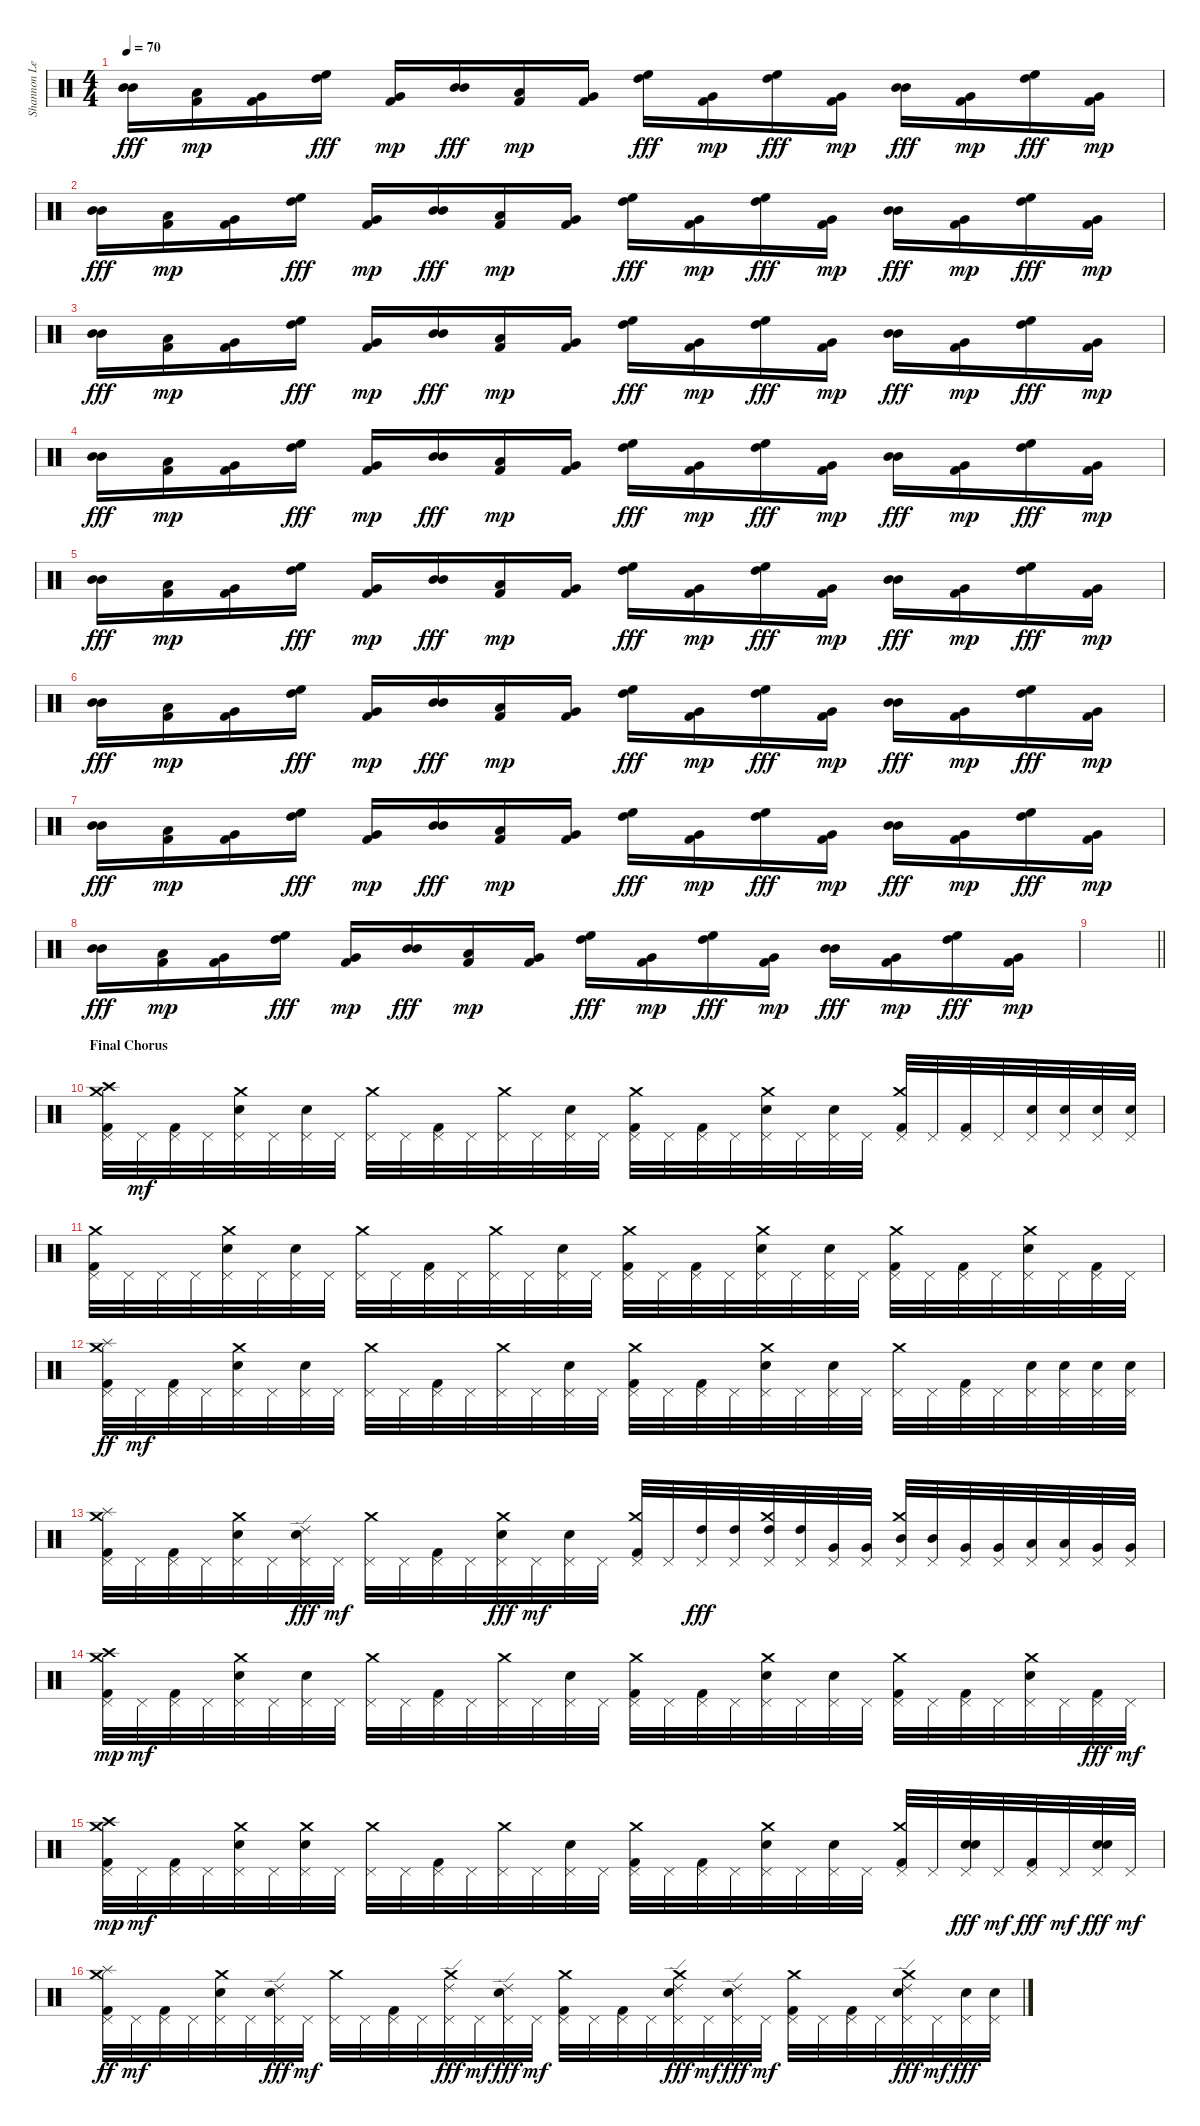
\track ("Shannon Leto - Drums" "Shannon Le") {instrument percussion}
\staff {score}
\articulation defaults
\ts (4 4)
\tempo 70
\clef neutral
\ks c
("Mid Tom (hit)" "Mid Tom (hit)").16{bd 30 dy fff} ("Low Tom (hit)" "Kick (hit) 2").16{dy mp} ("Very Low Tom (hit)" "Kick (hit) 2").16 ("High Floor Tom (hit)" "High Tom (hit)").16{bd 120 dy fff} ("Very Low Tom (hit)" "Kick (hit) 2").16{dy mp} ("Mid Tom (hit)" "Mid Tom (hit)").16{bd 30 dy fff} ("Low Tom (hit)" "Kick (hit) 2").16{dy mp} ("Very Low Tom (hit)" "Kick (hit) 2").16 ("High Floor Tom (hit)" "High Tom (hit)").16{bd 30 dy fff} ("Very Low Tom (hit)" "Kick (hit) 2").16{dy mp} ("High Floor Tom (hit)" "High Tom (hit)").16{bd 60 dy fff} ("Very Low Tom (hit)" "Kick (hit) 2").16{dy mp} ("Mid Tom (hit)" "Mid Tom (hit)").16{bd 30 dy fff} ("Very Low Tom (hit)" "Kick (hit) 2").16{dy mp} ("High Floor Tom (hit)" "High Tom (hit)").16{bd 30 dy fff} ("Very Low Tom (hit)" "Kick (hit) 2").16{dy mp} |
("Mid Tom (hit)" "Mid Tom (hit)").16{bd 30 dy fff} ("Low Tom (hit)" "Kick (hit) 2").16{dy mp} ("Very Low Tom (hit)" "Kick (hit) 2").16 ("High Floor Tom (hit)" "High Tom (hit)").16{bd 120 dy fff} ("Very Low Tom (hit)" "Kick (hit) 2").16{dy mp} ("Mid Tom (hit)" "Mid Tom (hit)").16{bd 30 dy fff} ("Low Tom (hit)" "Kick (hit) 2").16{dy mp} ("Very Low Tom (hit)" "Kick (hit) 2").16 ("High Floor Tom (hit)" "High Tom (hit)").16{bd 30 dy fff} ("Very Low Tom (hit)" "Kick (hit) 2").16{dy mp} ("High Floor Tom (hit)" "High Tom (hit)").16{bd 60 dy fff} ("Very Low Tom (hit)" "Kick (hit) 2").16{dy mp} ("Mid Tom (hit)" "Mid Tom (hit)").16{bd 30 dy fff} ("Very Low Tom (hit)" "Kick (hit) 2").16{dy mp} ("High Floor Tom (hit)" "High Tom (hit)").16{bd 30 dy fff} ("Very Low Tom (hit)" "Kick (hit) 2").16{dy mp} |
("Mid Tom (hit)" "Mid Tom (hit)").16{bd 30 dy fff} ("Low Tom (hit)" "Kick (hit) 2").16{dy mp} ("Very Low Tom (hit)" "Kick (hit) 2").16 ("High Floor Tom (hit)" "High Tom (hit)").16{bd 120 dy fff} ("Very Low Tom (hit)" "Kick (hit) 2").16{dy mp} ("Mid Tom (hit)" "Mid Tom (hit)").16{bd 30 dy fff} ("Low Tom (hit)" "Kick (hit) 2").16{dy mp} ("Very Low Tom (hit)" "Kick (hit) 2").16 ("High Floor Tom (hit)" "High Tom (hit)").16{bd 30 dy fff} ("Very Low Tom (hit)" "Kick (hit) 2").16{dy mp} ("High Floor Tom (hit)" "High Tom (hit)").16{bd 60 dy fff} ("Very Low Tom (hit)" "Kick (hit) 2").16{dy mp} ("Mid Tom (hit)" "Mid Tom (hit)").16{bd 30 dy fff} ("Very Low Tom (hit)" "Kick (hit) 2").16{dy mp} ("High Floor Tom (hit)" "High Tom (hit)").16{bd 30 dy fff} ("Very Low Tom (hit)" "Kick (hit) 2").16{dy mp} |
("Mid Tom (hit)" "Mid Tom (hit)").16{bd 30 dy fff} ("Low Tom (hit)" "Kick (hit) 2").16{dy mp} ("Very Low Tom (hit)" "Kick (hit) 2").16 ("High Floor Tom (hit)" "High Tom (hit)").16{bd 120 dy fff} ("Very Low Tom (hit)" "Kick (hit) 2").16{dy mp} ("Mid Tom (hit)" "Mid Tom (hit)").16{bd 30 dy fff} ("Low Tom (hit)" "Kick (hit) 2").16{dy mp} ("Very Low Tom (hit)" "Kick (hit) 2").16 ("High Floor Tom (hit)" "High Tom (hit)").16{bd 30 dy fff} ("Very Low Tom (hit)" "Kick (hit) 2").16{dy mp} ("High Floor Tom (hit)" "High Tom (hit)").16{bd 60 dy fff} ("Very Low Tom (hit)" "Kick (hit) 2").16{dy mp} ("Mid Tom (hit)" "Mid Tom (hit)").16{bd 30 dy fff} ("Very Low Tom (hit)" "Kick (hit) 2").16{dy mp} ("High Floor Tom (hit)" "High Tom (hit)").16{bd 30 dy fff} ("Very Low Tom (hit)" "Kick (hit) 2").16{dy mp} |
("Mid Tom (hit)" "Mid Tom (hit)").16{bd 30 dy fff} ("Low Tom (hit)" "Kick (hit) 2").16{dy mp} ("Very Low Tom (hit)" "Kick (hit) 2").16 ("High Floor Tom (hit)" "High Tom (hit)").16{bd 120 dy fff} ("Very Low Tom (hit)" "Kick (hit) 2").16{dy mp} ("Mid Tom (hit)" "Mid Tom (hit)").16{bd 30 dy fff} ("Low Tom (hit)" "Kick (hit) 2").16{dy mp} ("Very Low Tom (hit)" "Kick (hit) 2").16 ("High Floor Tom (hit)" "High Tom (hit)").16{bd 30 dy fff} ("Very Low Tom (hit)" "Kick (hit) 2").16{dy mp} ("High Floor Tom (hit)" "High Tom (hit)").16{bd 60 dy fff} ("Very Low Tom (hit)" "Kick (hit) 2").16{dy mp} ("Mid Tom (hit)" "Mid Tom (hit)").16{bd 30 dy fff} ("Very Low Tom (hit)" "Kick (hit) 2").16{dy mp} ("High Floor Tom (hit)" "High Tom (hit)").16{bd 30 dy fff} ("Very Low Tom (hit)" "Kick (hit) 2").16{dy mp} |
("Mid Tom (hit)" "Mid Tom (hit)").16{bd 30 dy fff} ("Low Tom (hit)" "Kick (hit) 2").16{dy mp} ("Very Low Tom (hit)" "Kick (hit) 2").16 ("High Floor Tom (hit)" "High Tom (hit)").16{bd 120 dy fff} ("Very Low Tom (hit)" "Kick (hit) 2").16{dy mp} ("Mid Tom (hit)" "Mid Tom (hit)").16{bd 30 dy fff} ("Low Tom (hit)" "Kick (hit) 2").16{dy mp} ("Very Low Tom (hit)" "Kick (hit) 2").16 ("High Floor Tom (hit)" "High Tom (hit)").16{bd 30 dy fff} ("Very Low Tom (hit)" "Kick (hit) 2").16{dy mp} ("High Floor Tom (hit)" "High Tom (hit)").16{bd 60 dy fff} ("Very Low Tom (hit)" "Kick (hit) 2").16{dy mp} ("Mid Tom (hit)" "Mid Tom (hit)").16{bd 30 dy fff} ("Very Low Tom (hit)" "Kick (hit) 2").16{dy mp} ("High Floor Tom (hit)" "High Tom (hit)").16{bd 30 dy fff} ("Very Low Tom (hit)" "Kick (hit) 2").16{dy mp} |
("Mid Tom (hit)" "Mid Tom (hit)").16{bd 30 dy fff} ("Low Tom (hit)" "Kick (hit) 2").16{dy mp} ("Very Low Tom (hit)" "Kick (hit) 2").16 ("High Floor Tom (hit)" "High Tom (hit)").16{bd 120 dy fff} ("Very Low Tom (hit)" "Kick (hit) 2").16{dy mp} ("Mid Tom (hit)" "Mid Tom (hit)").16{bd 30 dy fff} ("Low Tom (hit)" "Kick (hit) 2").16{dy mp} ("Very Low Tom (hit)" "Kick (hit) 2").16 ("High Floor Tom (hit)" "High Tom (hit)").16{bd 30 dy fff} ("Very Low Tom (hit)" "Kick (hit) 2").16{dy mp} ("High Floor Tom (hit)" "High Tom (hit)").16{bd 60 dy fff} ("Very Low Tom (hit)" "Kick (hit) 2").16{dy mp} ("Mid Tom (hit)" "Mid Tom (hit)").16{bd 30 dy fff} ("Very Low Tom (hit)" "Kick (hit) 2").16{dy mp} ("High Floor Tom (hit)" "High Tom (hit)").16{bd 30 dy fff} ("Very Low Tom (hit)" "Kick (hit) 2").16{dy mp} |
("Mid Tom (hit)" "Mid Tom (hit)").16{bd 30 dy fff} ("Low Tom (hit)" "Kick (hit) 2").16{dy mp} ("Very Low Tom (hit)" "Kick (hit) 2").16 ("High Floor Tom (hit)" "High Tom (hit)").16{bd 120 dy fff} ("Very Low Tom (hit)" "Kick (hit) 2").16{dy mp} ("Mid Tom (hit)" "Mid Tom (hit)").16{bd 30 dy fff} ("Low Tom (hit)" "Kick (hit) 2").16{dy mp} ("Very Low Tom (hit)" "Kick (hit) 2").16 ("High Floor Tom (hit)" "High Tom (hit)").16{bd 30 dy fff} ("Very Low Tom (hit)" "Kick (hit) 2").16{dy mp} ("High Floor Tom (hit)" "High Tom (hit)").16{bd 60 dy fff} ("Very Low Tom (hit)" "Kick (hit) 2").16{dy mp} ("Mid Tom (hit)" "Mid Tom (hit)").16{bd 30 dy fff} ("Very Low Tom (hit)" "Kick (hit) 2").16{dy mp} ("High Floor Tom (hit)" "High Tom (hit)").16{bd 30 dy fff} ("Very Low Tom (hit)" "Kick (hit) 2").16{dy mp} |
\barLineRight lightlight
|
\section ("" "Final Chorus")
("Crash medium (hit)" "Pedal Hi-Hat (hit)" "Crash high (hit)" "Kick (hit) 2").32 "Pedal Hi-Hat (hit)".32{dy mf} ("Pedal Hi-Hat (hit)" "Kick (hit) 2").32 "Pedal Hi-Hat (hit)".32 ("Crash medium (hit)" "Pedal Hi-Hat (hit)" "Electric Snare (hit)").32 "Pedal Hi-Hat (hit)".32 ("Pedal Hi-Hat (hit)" "Electric Snare (hit)").32 "Pedal Hi-Hat (hit)".32 ("Crash medium (hit)" "Pedal Hi-Hat (hit)").32 "Pedal Hi-Hat (hit)".32 ("Pedal Hi-Hat (hit)" "Kick (hit) 2").32 "Pedal Hi-Hat (hit)".32 ("Crash medium (hit)" "Pedal Hi-Hat (hit)").32 "Pedal Hi-Hat (hit)".32 ("Pedal Hi-Hat (hit)" "Electric Snare (hit)").32 "Pedal Hi-Hat (hit)".32 ("Crash medium (hit)" "Pedal Hi-Hat (hit)" "Kick (hit) 2").32 "Pedal Hi-Hat (hit)".32 ("Pedal Hi-Hat (hit)" "Kick (hit) 2").32 "Pedal Hi-Hat (hit)".32 ("Crash medium (hit)" "Pedal Hi-Hat (hit)" "Electric Snare (hit)").32 "Pedal Hi-Hat (hit)".32 ("Pedal Hi-Hat (hit)" "Electric Snare (hit)").32 "Pedal Hi-Hat (hit)".32 ("Crash medium (hit)" "Pedal Hi-Hat (hit)" "Kick (hit) 2").32 "Pedal Hi-Hat (hit)".32 ("Pedal Hi-Hat (hit)" "Kick (hit) 2").32 "Pedal Hi-Hat (hit)".32 ("Pedal Hi-Hat (hit)" "Electric Snare (hit)").32 ("Pedal Hi-Hat (hit)" "Electric Snare (hit)").32 ("Pedal Hi-Hat (hit)" "Electric Snare (hit)").32 ("Pedal Hi-Hat (hit)" "Electric Snare (hit)").32 |
("Crash medium (hit)" "Pedal Hi-Hat (hit)" "Kick (hit) 2").32 "Pedal Hi-Hat (hit)".32 "Pedal Hi-Hat (hit)".32 "Pedal Hi-Hat (hit)".32 ("Crash medium (hit)" "Pedal Hi-Hat (hit)" "Electric Snare (hit)").32 "Pedal Hi-Hat (hit)".32 ("Pedal Hi-Hat (hit)" "Electric Snare (hit)").32 "Pedal Hi-Hat (hit)".32 ("Crash medium (hit)" "Pedal Hi-Hat (hit)").32 "Pedal Hi-Hat (hit)".32 ("Pedal Hi-Hat (hit)" "Kick (hit) 2").32 "Pedal Hi-Hat (hit)".32 ("Crash medium (hit)" "Pedal Hi-Hat (hit)").32 "Pedal Hi-Hat (hit)".32 ("Pedal Hi-Hat (hit)" "Electric Snare (hit)").32 "Pedal Hi-Hat (hit)".32 ("Crash medium (hit)" "Pedal Hi-Hat (hit)" "Kick (hit) 2").32 "Pedal Hi-Hat (hit)".32 ("Pedal Hi-Hat (hit)" "Kick (hit) 2").32 "Pedal Hi-Hat (hit)".32 ("Crash medium (hit)" "Pedal Hi-Hat (hit)" "Electric Snare (hit)").32 "Pedal Hi-Hat (hit)".32 ("Pedal Hi-Hat (hit)" "Electric Snare (hit)").32 "Pedal Hi-Hat (hit)".32 ("Crash medium (hit)" "Pedal Hi-Hat (hit)" "Kick (hit) 2").32 "Pedal Hi-Hat (hit)".32 ("Pedal Hi-Hat (hit)" "Kick (hit) 2").32 "Pedal Hi-Hat (hit)".32 ("Crash medium (hit)" "Pedal Hi-Hat (hit)" "Electric Snare (hit)").32 "Pedal Hi-Hat (hit)".32 ("Pedal Hi-Hat (hit)" "Kick (hit) 2").32 "Pedal Hi-Hat (hit)".32 |
("Crash medium (hit)" "Pedal Hi-Hat (hit)" "Splash (hit)" "Kick (hit) 2").32{dy ff} "Pedal Hi-Hat (hit)".32{dy mf} ("Pedal Hi-Hat (hit)" "Kick (hit) 2").32 "Pedal Hi-Hat (hit)".32 ("Crash medium (hit)" "Pedal Hi-Hat (hit)" "Electric Snare (hit)").32 "Pedal Hi-Hat (hit)".32 ("Pedal Hi-Hat (hit)" "Electric Snare (hit)").32 "Pedal Hi-Hat (hit)".32 ("Crash medium (hit)" "Pedal Hi-Hat (hit)").32 "Pedal Hi-Hat (hit)".32 ("Pedal Hi-Hat (hit)" "Kick (hit) 2").32 "Pedal Hi-Hat (hit)".32 ("Crash medium (hit)" "Pedal Hi-Hat (hit)").32 "Pedal Hi-Hat (hit)".32 ("Pedal Hi-Hat (hit)" "Electric Snare (hit)").32 "Pedal Hi-Hat (hit)".32 ("Crash medium (hit)" "Pedal Hi-Hat (hit)" "Kick (hit) 2").32 "Pedal Hi-Hat (hit)".32 ("Pedal Hi-Hat (hit)" "Kick (hit) 2").32 "Pedal Hi-Hat (hit)".32 ("Crash medium (hit)" "Pedal Hi-Hat (hit)" "Electric Snare (hit)").32 "Pedal Hi-Hat (hit)".32 ("Pedal Hi-Hat (hit)" "Electric Snare (hit)").32 "Pedal Hi-Hat (hit)".32 ("Crash medium (hit)" "Pedal Hi-Hat (hit)").32 "Pedal Hi-Hat (hit)".32 ("Pedal Hi-Hat (hit)" "Kick (hit) 2").32 "Pedal Hi-Hat (hit)".32 ("Pedal Hi-Hat (hit)" "Electric Snare (hit)").32 ("Pedal Hi-Hat (hit)" "Electric Snare (hit)").32 ("Pedal Hi-Hat (hit)" "Electric Snare (hit)").32 ("Pedal Hi-Hat (hit)" "Electric Snare (hit)").32 |
("Crash medium (hit)" "Pedal Hi-Hat (hit)" "Splash (hit)" "Kick (hit) 2").32 "Pedal Hi-Hat (hit)".32 ("Pedal Hi-Hat (hit)" "Kick (hit) 2").32 "Pedal Hi-Hat (hit)".32 ("Crash medium (hit)" "Pedal Hi-Hat (hit)" "Electric Snare (hit)").32 "Pedal Hi-Hat (hit)".32 ("Pedal Hi-Hat (hit)" "Electric Snare (hit)" "Ride (edge) 2").32{dy fff} "Pedal Hi-Hat (hit)".32{dy mf} ("Crash medium (hit)" "Pedal Hi-Hat (hit)").32 "Pedal Hi-Hat (hit)".32 ("Pedal Hi-Hat (hit)" "Kick (hit) 2").32 "Pedal Hi-Hat (hit)".32 ("Crash medium (hit)" "Pedal Hi-Hat (hit)" "Electric Snare (hit)").32{dy fff} "Pedal Hi-Hat (hit)".32{dy mf} ("Pedal Hi-Hat (hit)" "Electric Snare (hit)").32 "Pedal Hi-Hat (hit)".32 ("Crash medium (hit)" "Pedal Hi-Hat (hit)" "Kick (hit) 2").32 "Pedal Hi-Hat (hit)".32 ("Pedal Hi-Hat (hit)" "High Tom (hit)").32{dy fff} ("Pedal Hi-Hat (hit)" "High Tom (hit)").32 ("Crash medium (hit)" "Pedal Hi-Hat (hit)" "High Tom (hit)").32 ("Pedal Hi-Hat (hit)" "High Tom (hit)").32 ("Pedal Hi-Hat (hit)" "Very Low Tom (hit)").32 ("Pedal Hi-Hat (hit)" "Very Low Tom (hit)").32 ("Crash medium (hit)" "Pedal Hi-Hat (hit)" "Mid Tom (hit)").32 ("Pedal Hi-Hat (hit)" "Mid Tom (hit)").32 ("Pedal Hi-Hat (hit)" "Very Low Tom (hit)").32 ("Pedal Hi-Hat (hit)" "Very Low Tom (hit)").32 ("Pedal Hi-Hat (hit)" "Low Tom (hit)").32 ("Pedal Hi-Hat (hit)" "Low Tom (hit)").32 ("Pedal Hi-Hat (hit)" "Very Low Tom (hit)").32 ("Pedal Hi-Hat (hit)" "Very Low Tom (hit)").32 |
("Crash medium (hit)" "Pedal Hi-Hat (hit)" "Crash high (hit)" "Kick (hit) 2").32{dy mp} "Pedal Hi-Hat (hit)".32{dy mf} ("Pedal Hi-Hat (hit)" "Kick (hit) 2").32 "Pedal Hi-Hat (hit)".32 ("Crash medium (hit)" "Pedal Hi-Hat (hit)" "Electric Snare (hit)").32 "Pedal Hi-Hat (hit)".32 ("Pedal Hi-Hat (hit)" "Electric Snare (hit)").32 "Pedal Hi-Hat (hit)".32 ("Crash medium (hit)" "Pedal Hi-Hat (hit)").32 "Pedal Hi-Hat (hit)".32 ("Pedal Hi-Hat (hit)" "Kick (hit) 2").32 "Pedal Hi-Hat (hit)".32 ("Crash medium (hit)" "Pedal Hi-Hat (hit)").32 "Pedal Hi-Hat (hit)".32 ("Pedal Hi-Hat (hit)" "Electric Snare (hit)").32 "Pedal Hi-Hat (hit)".32 ("Crash medium (hit)" "Pedal Hi-Hat (hit)" "Kick (hit) 2").32 "Pedal Hi-Hat (hit)".32 ("Pedal Hi-Hat (hit)" "Kick (hit) 2").32 "Pedal Hi-Hat (hit)".32 ("Crash medium (hit)" "Pedal Hi-Hat (hit)" "Electric Snare (hit)").32 "Pedal Hi-Hat (hit)".32 ("Pedal Hi-Hat (hit)" "Electric Snare (hit)").32 "Pedal Hi-Hat (hit)".32 ("Crash medium (hit)" "Pedal Hi-Hat (hit)" "Kick (hit) 2").32 "Pedal Hi-Hat (hit)".32 ("Pedal Hi-Hat (hit)" "Kick (hit) 2").32 "Pedal Hi-Hat (hit)".32 ("Crash medium (hit)" "Pedal Hi-Hat (hit)" "Electric Snare (hit)").32 "Pedal Hi-Hat (hit)".32 ("Pedal Hi-Hat (hit)" "Kick (hit) 2").32{dy fff} "Pedal Hi-Hat (hit)".32{dy mf} |
("Crash medium (hit)" "Pedal Hi-Hat (hit)" "Crash high (hit)" "Kick (hit) 2").32{dy mp} "Pedal Hi-Hat (hit)".32{dy mf} ("Pedal Hi-Hat (hit)" "Kick (hit) 2").32 "Pedal Hi-Hat (hit)".32 ("Crash medium (hit)" "Pedal Hi-Hat (hit)" "Electric Snare (hit)").32 "Pedal Hi-Hat (hit)".32 ("Crash medium (hit)" "Pedal Hi-Hat (hit)" "Electric Snare (hit)").32 "Pedal Hi-Hat (hit)".32 ("Crash medium (hit)" "Pedal Hi-Hat (hit)").32 "Pedal Hi-Hat (hit)".32 ("Pedal Hi-Hat (hit)" "Kick (hit) 2").32 "Pedal Hi-Hat (hit)".32 ("Crash medium (hit)" "Pedal Hi-Hat (hit)").32 "Pedal Hi-Hat (hit)".32 ("Pedal Hi-Hat (hit)" "Electric Snare (hit)").32 "Pedal Hi-Hat (hit)".32 ("Crash medium (hit)" "Pedal Hi-Hat (hit)" "Kick (hit) 2").32 "Pedal Hi-Hat (hit)".32 ("Pedal Hi-Hat (hit)" "Kick (hit) 2").32 "Pedal Hi-Hat (hit)".32 ("Crash medium (hit)" "Pedal Hi-Hat (hit)" "Electric Snare (hit)").32 "Pedal Hi-Hat (hit)".32 ("Pedal Hi-Hat (hit)" "Electric Snare (hit)").32 "Pedal Hi-Hat (hit)".32 ("Crash medium (hit)" "Pedal Hi-Hat (hit)" "Kick (hit) 2").32 "Pedal Hi-Hat (hit)".32 ("Pedal Hi-Hat (hit)" "Electric Snare (hit)" "Electric Snare (hit)").32{dy fff} "Pedal Hi-Hat (hit)".32{dy mf} ("Pedal Hi-Hat (hit)" "Kick (hit) 2").32{dy fff} "Pedal Hi-Hat (hit)".32{dy mf} ("Pedal Hi-Hat (hit)" "Electric Snare (hit)" "Electric Snare (hit)").32{dy fff} "Pedal Hi-Hat (hit)".32{dy mf} |
("Crash medium (hit)" "Pedal Hi-Hat (hit)" "Splash (hit)" "Kick (hit) 2").32{dy ff} "Pedal Hi-Hat (hit)".32{dy mf} ("Pedal Hi-Hat (hit)" "Kick (hit) 2").32 "Pedal Hi-Hat (hit)".32 ("Crash medium (hit)" "Pedal Hi-Hat (hit)" "Electric Snare (hit)").32 "Pedal Hi-Hat (hit)".32 ("Pedal Hi-Hat (hit)" "Electric Snare (hit)" "Ride (edge) 2").32{dy fff} "Pedal Hi-Hat (hit)".32{dy mf} ("Crash medium (hit)" "Pedal Hi-Hat (hit)").32 "Pedal Hi-Hat (hit)".32 ("Pedal Hi-Hat (hit)" "Kick (hit) 2").32 "Pedal Hi-Hat (hit)".32 ("Crash medium (hit)" "Pedal Hi-Hat (hit)" "Ride (edge) 2").32{dy fff} "Pedal Hi-Hat (hit)".32{dy mf} ("Pedal Hi-Hat (hit)" "Electric Snare (hit)" "Ride (edge) 2").32{dy fff} "Pedal Hi-Hat (hit)".32{dy mf} ("Crash medium (hit)" "Pedal Hi-Hat (hit)" "Kick (hit) 2").32 "Pedal Hi-Hat (hit)".32 ("Pedal Hi-Hat (hit)" "Kick (hit) 2").32 "Pedal Hi-Hat (hit)".32 ("Crash medium (hit)" "Pedal Hi-Hat (hit)" "Electric Snare (hit)" "Ride (edge) 2").32{dy fff} "Pedal Hi-Hat (hit)".32{dy mf} ("Pedal Hi-Hat (hit)" "Electric Snare (hit)" "Ride (edge) 2").32{dy fff} "Pedal Hi-Hat (hit)".32{dy mf} ("Crash medium (hit)" "Pedal Hi-Hat (hit)" "Kick (hit) 2").32 "Pedal Hi-Hat (hit)".32 ("Pedal Hi-Hat (hit)" "Kick (hit) 2").32 "Pedal Hi-Hat (hit)".32 ("Crash medium (hit)" "Pedal Hi-Hat (hit)" "Electric Snare (hit)" "Ride (edge) 2").32{dy fff} "Pedal Hi-Hat (hit)".32{dy mf} ("Pedal Hi-Hat (hit)" "Electric Snare (hit)").32{dy fff} ("Pedal Hi-Hat (hit)" "Electric Snare (hit)").32
